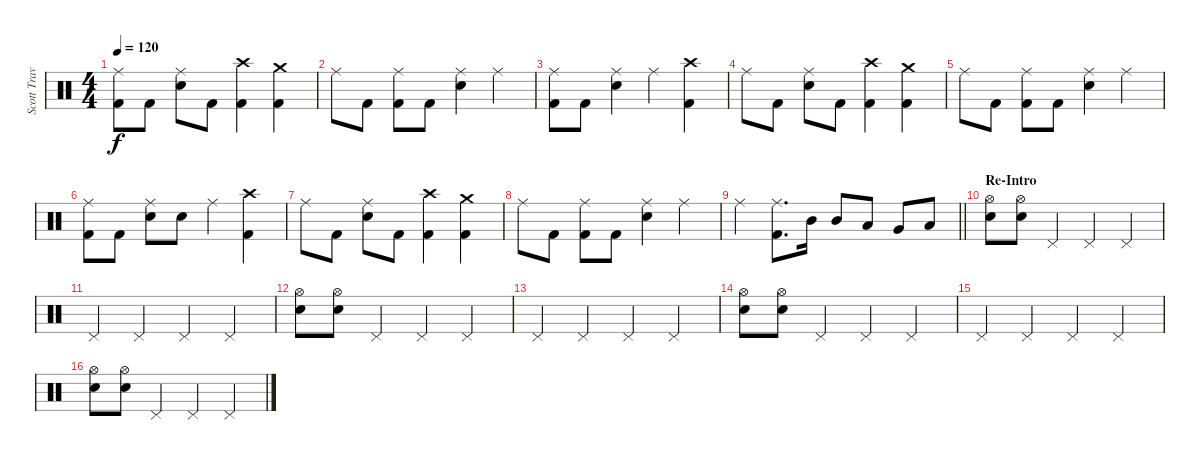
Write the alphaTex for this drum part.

\track ("Scott Travis" "Scott Trav") {instrument percussion}
\staff {score}
\articulation defaults
\ts (4 4)
\tempo 120
\clef neutral
\ks c
("Ride (middle)" "Kick (hit) 2").8{dy f} "Kick (hit) 2".8 ("Ride (middle)" "Snare (hit) 2").8 "Kick (hit) 2".8 ("Crash high (hit)" "Kick (hit) 2").4 ("Crash medium (hit)" "Kick (hit) 2").4 |
"Ride (middle)".8 "Kick (hit) 2".8 ("Ride (middle)" "Kick (hit) 2").8 "Kick (hit) 2".8 ("Ride (middle)" "Snare (hit) 2").4 "Ride (middle)".4 |
("Ride (middle)" "Kick (hit) 2").8 "Kick (hit) 2".8 ("Ride (middle)" "Snare (hit) 2").4 "Ride (middle)".4 ("Crash high (hit)" "Kick (hit) 2").4 |
"Ride (middle)".8 "Kick (hit) 2".8 ("Ride (middle)" "Snare (hit) 2").8 "Kick (hit) 2".8 ("Crash high (hit)" "Kick (hit) 2").4 ("Crash medium (hit)" "Kick (hit) 2").4 |
"Ride (middle)".8 "Kick (hit) 2".8 ("Ride (middle)" "Kick (hit) 2").8 "Kick (hit) 2".8 ("Ride (middle)" "Snare (hit) 2").4 "Ride (middle)".4 |
("Ride (middle)" "Kick (hit) 2").8 "Kick (hit) 2".8 ("Ride (middle)" "Snare (hit) 2").8 "Snare (hit) 2".8 "Ride (middle)".4 ("Crash high (hit)" "Kick (hit) 2").4 |
"Ride (middle)".8 "Kick (hit) 2".8 ("Ride (middle)" "Snare (hit) 2").8 "Kick (hit) 2".8 ("Crash high (hit)" "Kick (hit) 2").4 ("Crash medium (hit)" "Kick (hit) 2").4 |
"Ride (middle)".8 "Kick (hit) 2".8 ("Ride (middle)" "Kick (hit) 2").8 "Kick (hit) 2".8 ("Ride (middle)" "Snare (hit) 2").4 "Ride (middle)".4 |
\barLineRight lightlight "Ride (middle)".4
("Ride (middle)" "Kick (hit) 2").8{d} "Mid Tom (hit)".16 "Mid Tom (hit)".8 "Low Tom (hit)".8 "Very Low Tom (hit)".8 "Low Floor Tom (hit)".8 |
\section ("" "Re-Intro")
("Hi-Hat (open)" "Snare (hit) 2").8 ("Hi-Hat (open)" "Snare (hit) 2").8 "Pedal Hi-Hat (hit)".4 "Pedal Hi-Hat (hit)".4 "Pedal Hi-Hat (hit)".4 |
"Pedal Hi-Hat (hit)".4 "Pedal Hi-Hat (hit)".4 "Pedal Hi-Hat (hit)".4 "Pedal Hi-Hat (hit)".4 |
("Hi-Hat (open)" "Snare (hit) 2").8 ("Hi-Hat (open)" "Snare (hit) 2").8 "Pedal Hi-Hat (hit)".4 "Pedal Hi-Hat (hit)".4 "Pedal Hi-Hat (hit)".4 |
"Pedal Hi-Hat (hit)".4 "Pedal Hi-Hat (hit)".4 "Pedal Hi-Hat (hit)".4 "Pedal Hi-Hat (hit)".4 |
("Hi-Hat (open)" "Snare (hit) 2").8 ("Hi-Hat (open)" "Snare (hit) 2").8 "Pedal Hi-Hat (hit)".4 "Pedal Hi-Hat (hit)".4 "Pedal Hi-Hat (hit)".4 |
"Pedal Hi-Hat (hit)".4 "Pedal Hi-Hat (hit)".4 "Pedal Hi-Hat (hit)".4 "Pedal Hi-Hat (hit)".4 |
("Hi-Hat (open)" "Snare (hit) 2").8 ("Hi-Hat (open)" "Snare (hit) 2").8 "Pedal Hi-Hat (hit)".4 "Pedal Hi-Hat (hit)".4 "Pedal Hi-Hat (hit)".4
